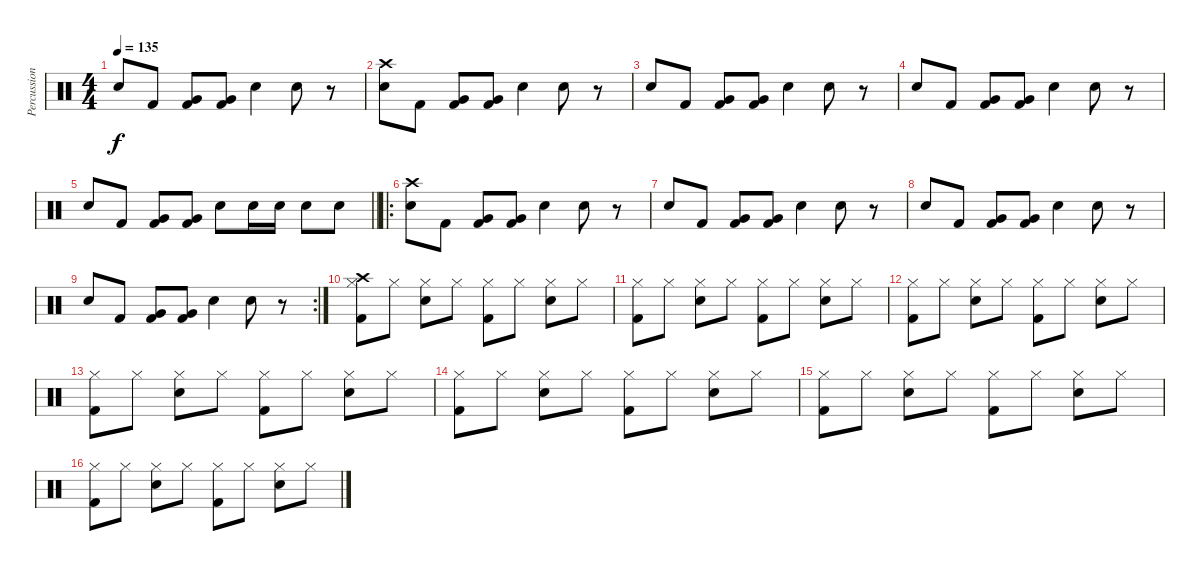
\track ("Percussion" "Percussion") {instrument percussion}
\staff {score}
\articulation defaults
\ts (4 4)
\tempo 135
\clef neutral
\ks c "Snare (hit) 2".8{dy f} "Kick (hit) 2".8
("Very Low Tom (hit)" "Kick (hit) 2").8 ("Very Low Tom (hit)" "Kick (hit) 2").8 "Snare (hit) 2".4 "Snare (hit) 2".8 r.8 |
("Crash high (hit)" "Snare (hit) 2").8 "Kick (hit) 2".8 ("Very Low Tom (hit)" "Kick (hit) 2").8 ("Very Low Tom (hit)" "Kick (hit) 2").8 "Snare (hit) 2".4 "Snare (hit) 2".8 r.8 |
"Snare (hit) 2".8 "Kick (hit) 2".8 ("Very Low Tom (hit)" "Kick (hit) 2").8 ("Very Low Tom (hit)" "Kick (hit) 2").8 "Snare (hit) 2".4 "Snare (hit) 2".8 r.8 |
"Snare (hit) 2".8 "Kick (hit) 2".8 ("Very Low Tom (hit)" "Kick (hit) 2").8 ("Very Low Tom (hit)" "Kick (hit) 2").8 "Snare (hit) 2".4 "Snare (hit) 2".8 r.8 |
\barLineRight lightlight "Snare (hit) 2".8 "Kick (hit) 2".8
("Very Low Tom (hit)" "Kick (hit) 2").8 ("Very Low Tom (hit)" "Kick (hit) 2").8 "Snare (hit) 2".8 "Snare (hit) 2".16 "Snare (hit) 2".16 "Snare (hit) 2".8 "Snare (hit) 2".8 |
\ro
("Crash high (hit)" "Snare (hit) 2").8 "Kick (hit) 2".8 ("Very Low Tom (hit)" "Kick (hit) 2").8 ("Very Low Tom (hit)" "Kick (hit) 2").8 "Snare (hit) 2".4 "Snare (hit) 2".8 r.8 |
"Snare (hit) 2".8 "Kick (hit) 2".8 ("Very Low Tom (hit)" "Kick (hit) 2").8 ("Very Low Tom (hit)" "Kick (hit) 2").8 "Snare (hit) 2".4 "Snare (hit) 2".8 r.8 |
"Snare (hit) 2".8 "Kick (hit) 2".8 ("Very Low Tom (hit)" "Kick (hit) 2").8 ("Very Low Tom (hit)" "Kick (hit) 2").8 "Snare (hit) 2".4 "Snare (hit) 2".8 r.8 |
\rc 2 "Snare (hit) 2".8 "Kick (hit) 2".8
("Very Low Tom (hit)" "Kick (hit) 2").8 ("Very Low Tom (hit)" "Kick (hit) 2").8 "Snare (hit) 2".4 "Snare (hit) 2".8 r.8 |
("Crash high (hit)" "Hi-Hat (closed)" "Kick (hit) 2").8 "Hi-Hat (closed)".8 ("Hi-Hat (closed)" "Snare (hit) 2").8 "Hi-Hat (closed)".8 ("Hi-Hat (closed)" "Kick (hit) 2").8 "Hi-Hat (closed)".8 ("Hi-Hat (closed)" "Snare (hit) 2").8 "Hi-Hat (closed)".8 |
("Hi-Hat (closed)" "Kick (hit) 2").8 "Hi-Hat (closed)".8 ("Hi-Hat (closed)" "Snare (hit) 2").8 "Hi-Hat (closed)".8 ("Hi-Hat (closed)" "Kick (hit) 2").8 "Hi-Hat (closed)".8 ("Hi-Hat (closed)" "Snare (hit) 2").8 "Hi-Hat (closed)".8 |
("Hi-Hat (closed)" "Kick (hit) 2").8 "Hi-Hat (closed)".8 ("Hi-Hat (closed)" "Snare (hit) 2").8 "Hi-Hat (closed)".8 ("Hi-Hat (closed)" "Kick (hit) 2").8 "Hi-Hat (closed)".8 ("Hi-Hat (closed)" "Snare (hit) 2").8 "Hi-Hat (closed)".8 |
("Hi-Hat (closed)" "Kick (hit) 2").8 "Hi-Hat (closed)".8 ("Hi-Hat (closed)" "Snare (hit) 2").8 "Hi-Hat (closed)".8 ("Hi-Hat (closed)" "Kick (hit) 2").8 "Hi-Hat (closed)".8 ("Hi-Hat (closed)" "Snare (hit) 2").8 "Hi-Hat (closed)".8 |
("Hi-Hat (closed)" "Kick (hit) 2").8 "Hi-Hat (closed)".8 ("Hi-Hat (closed)" "Snare (hit) 2").8 "Hi-Hat (closed)".8 ("Hi-Hat (closed)" "Kick (hit) 2").8 "Hi-Hat (closed)".8 ("Hi-Hat (closed)" "Snare (hit) 2").8 "Hi-Hat (closed)".8 |
("Hi-Hat (closed)" "Kick (hit) 2").8 "Hi-Hat (closed)".8 ("Hi-Hat (closed)" "Snare (hit) 2").8 "Hi-Hat (closed)".8 ("Hi-Hat (closed)" "Kick (hit) 2").8 "Hi-Hat (closed)".8 ("Hi-Hat (closed)" "Snare (hit) 2").8 "Hi-Hat (closed)".8 |
("Hi-Hat (closed)" "Kick (hit) 2").8 "Hi-Hat (closed)".8 ("Hi-Hat (closed)" "Snare (hit) 2").8 "Hi-Hat (closed)".8 ("Hi-Hat (closed)" "Kick (hit) 2").8 "Hi-Hat (closed)".8 ("Hi-Hat (closed)" "Snare (hit) 2").8 "Hi-Hat (closed)".8
